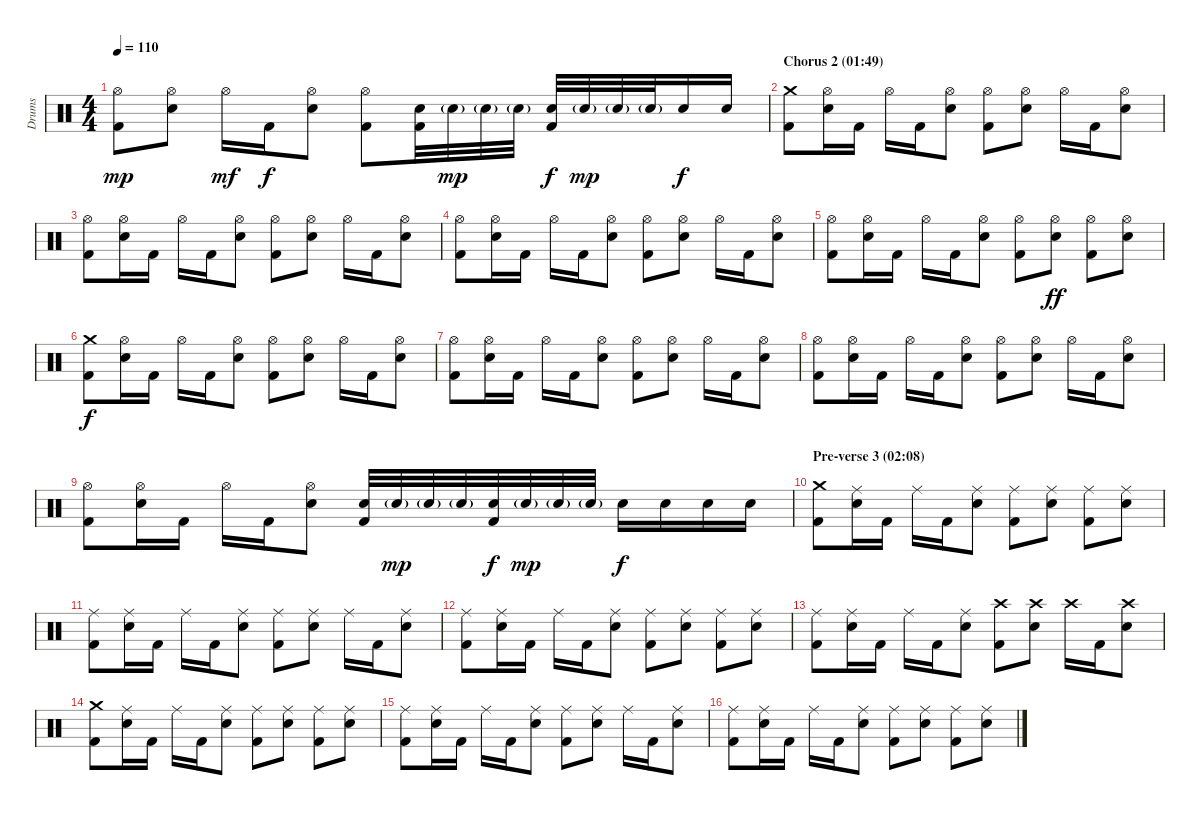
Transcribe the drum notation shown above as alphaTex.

\track ("Drums" "Drums") {instrument percussion}
\staff {score}
\articulation defaults
\ts (4 4)
\tempo 110
\clef neutral
\ks c
("Hi-Hat (open)" "Kick (hit) 2").8{dy mp} ("Hi-Hat (open)" "Electric Snare (hit)").8 "Hi-Hat (open)".16{dy mf} "Kick (hit) 2".16{dy f} ("Hi-Hat (open)" "Electric Snare (hit)").8 ("Hi-Hat (open)" "Kick (hit) 2").8 ("Electric Snare (hit)" "Kick (hit) 2").32 "Electric Snare (hit)"{g}.32{dy mp} "Electric Snare (hit)"{g}.32 "Electric Snare (hit)"{g}.32 ("Electric Snare (hit)" "Kick (hit) 2").32{dy f} "Electric Snare (hit)"{g}.32{dy mp} "Electric Snare (hit)"{g}.32 "Electric Snare (hit)"{g}.32 "Electric Snare (hit)".16{dy f} "Electric Snare (hit)".16 |
\section ("" "Chorus 2 (01:49)")
("Crash medium (hit)" "Kick (hit) 2").8 ("Hi-Hat (open)" "Electric Snare (hit)").16 "Kick (hit) 2".16 "Hi-Hat (open)".16 "Kick (hit) 2".16 ("Hi-Hat (open)" "Electric Snare (hit)").8 ("Hi-Hat (open)" "Kick (hit) 2").8 ("Hi-Hat (open)" "Electric Snare (hit)").8 "Hi-Hat (open)".16 "Kick (hit) 2".16 ("Hi-Hat (open)" "Electric Snare (hit)").8 |
("Hi-Hat (open)" "Kick (hit) 2").8 ("Hi-Hat (open)" "Electric Snare (hit)").16 "Kick (hit) 2".16 "Hi-Hat (open)".16 "Kick (hit) 2".16 ("Hi-Hat (open)" "Electric Snare (hit)").8 ("Hi-Hat (open)" "Kick (hit) 2").8 ("Hi-Hat (open)" "Electric Snare (hit)").8 "Hi-Hat (open)".16 "Kick (hit) 2".16 ("Hi-Hat (open)" "Electric Snare (hit)").8 |
("Hi-Hat (open)" "Kick (hit) 2").8 ("Hi-Hat (open)" "Electric Snare (hit)").16 "Kick (hit) 2".16 "Hi-Hat (open)".16 "Kick (hit) 2".16 ("Hi-Hat (open)" "Electric Snare (hit)").8 ("Hi-Hat (open)" "Kick (hit) 2").8 ("Hi-Hat (open)" "Electric Snare (hit)").8 "Hi-Hat (open)".16 "Kick (hit) 2".16 ("Hi-Hat (open)" "Electric Snare (hit)").8 |
("Hi-Hat (open)" "Kick (hit) 2").8 ("Hi-Hat (open)" "Electric Snare (hit)").16 "Kick (hit) 2".16 "Hi-Hat (open)".16 "Kick (hit) 2".16 ("Hi-Hat (open)" "Electric Snare (hit)").8 ("Hi-Hat (open)" "Kick (hit) 2").8 ("Hi-Hat (open)" "Electric Snare (hit)").8{dy ff} ("Hi-Hat (open)" "Kick (hit) 2").8 ("Hi-Hat (open)" "Electric Snare (hit)").8 |
("Crash medium (hit)" "Kick (hit) 2").8{dy f} ("Hi-Hat (open)" "Electric Snare (hit)").16 "Kick (hit) 2".16 "Hi-Hat (open)".16 "Kick (hit) 2".16 ("Hi-Hat (open)" "Electric Snare (hit)").8 ("Hi-Hat (open)" "Kick (hit) 2").8 ("Hi-Hat (open)" "Electric Snare (hit)").8 "Hi-Hat (open)".16 "Kick (hit) 2".16 ("Hi-Hat (open)" "Electric Snare (hit)").8 |
("Hi-Hat (open)" "Kick (hit) 2").8 ("Hi-Hat (open)" "Electric Snare (hit)").16 "Kick (hit) 2".16 "Hi-Hat (open)".16 "Kick (hit) 2".16 ("Hi-Hat (open)" "Electric Snare (hit)").8 ("Hi-Hat (open)" "Kick (hit) 2").8 ("Hi-Hat (open)" "Electric Snare (hit)").8 "Hi-Hat (open)".16 "Kick (hit) 2".16 ("Hi-Hat (open)" "Electric Snare (hit)").8 |
("Hi-Hat (open)" "Kick (hit) 2").8 ("Hi-Hat (open)" "Electric Snare (hit)").16 "Kick (hit) 2".16 "Hi-Hat (open)".16 "Kick (hit) 2".16 ("Hi-Hat (open)" "Electric Snare (hit)").8 ("Hi-Hat (open)" "Kick (hit) 2").8 ("Hi-Hat (open)" "Electric Snare (hit)").8 "Hi-Hat (open)".16 "Kick (hit) 2".16 ("Hi-Hat (open)" "Electric Snare (hit)").8 |
("Hi-Hat (open)" "Kick (hit) 2").8 ("Hi-Hat (open)" "Electric Snare (hit)").16 "Kick (hit) 2".16 "Hi-Hat (open)".16 "Kick (hit) 2".16 ("Hi-Hat (open)" "Electric Snare (hit)").8 ("Electric Snare (hit)" "Kick (hit) 2").32 "Electric Snare (hit)"{g}.32{dy mp} "Electric Snare (hit)"{g}.32 "Electric Snare (hit)"{g}.32 ("Electric Snare (hit)" "Kick (hit) 2").32{dy f} "Electric Snare (hit)"{g}.32{dy mp} "Electric Snare (hit)"{g}.32 "Electric Snare (hit)"{g}.32 "Electric Snare (hit)".16{dy f} "Electric Snare (hit)".16 "Electric Snare (hit)".16 "Electric Snare (hit)".16 |
\section ("" "Pre-verse 3 (02:08)")
("Crash medium (hit)" "Kick (hit) 2").8 ("Ride (middle)" "Electric Snare (hit)").16 "Kick (hit) 2".16 "Ride (middle)".16 "Kick (hit) 2".16 ("Ride (middle)" "Electric Snare (hit)").8 ("Ride (middle)" "Kick (hit) 2").8 ("Ride (middle)" "Electric Snare (hit)").8 ("Ride (middle)" "Kick (hit) 2").8 ("Ride (middle)" "Electric Snare (hit)").8 |
("Ride (middle)" "Kick (hit) 2").8 ("Ride (middle)" "Electric Snare (hit)").16 "Kick (hit) 2".16 "Ride (middle)".16 "Kick (hit) 2".16 ("Ride (middle)" "Electric Snare (hit)").8 ("Ride (middle)" "Kick (hit) 2").8 ("Ride (middle)" "Electric Snare (hit)").8 "Ride (middle)".16 "Kick (hit) 2".16 ("Ride (middle)" "Electric Snare (hit)").8 |
("Ride (middle)" "Kick (hit) 2").8 ("Ride (middle)" "Electric Snare (hit)").16 "Kick (hit) 2".16 "Ride (middle)".16 "Kick (hit) 2".16 ("Ride (middle)" "Electric Snare (hit)").8 ("Ride (middle)" "Kick (hit) 2").8 ("Ride (middle)" "Electric Snare (hit)").8 ("Ride (middle)" "Kick (hit) 2").8 ("Ride (middle)" "Electric Snare (hit)").8 |
("Ride (middle)" "Kick (hit) 2").8 ("Ride (middle)" "Electric Snare (hit)").16 "Kick (hit) 2".16 "Ride (middle)".16 "Kick (hit) 2".16 ("Ride (middle)" "Electric Snare (hit)").8 ("Crash high (hit)" "Kick (hit) 2").8 ("Crash high (hit)" "Electric Snare (hit)").8 "Crash high (hit)".16 "Kick (hit) 2".16 ("Crash high (hit)" "Electric Snare (hit)").8 |
("Crash medium (hit)" "Kick (hit) 2").8 ("Ride (middle)" "Electric Snare (hit)").16 "Kick (hit) 2".16 "Ride (middle)".16 "Kick (hit) 2".16 ("Ride (middle)" "Electric Snare (hit)").8 ("Ride (middle)" "Kick (hit) 2").8 ("Ride (middle)" "Electric Snare (hit)").8 ("Ride (middle)" "Kick (hit) 2").8 ("Ride (middle)" "Electric Snare (hit)").8 |
("Ride (middle)" "Kick (hit) 2").8 ("Ride (middle)" "Electric Snare (hit)").16 "Kick (hit) 2".16 "Ride (middle)".16 "Kick (hit) 2".16 ("Ride (middle)" "Electric Snare (hit)").8 ("Ride (middle)" "Kick (hit) 2").8 ("Ride (middle)" "Electric Snare (hit)").8 "Ride (middle)".16 "Kick (hit) 2".16 ("Ride (middle)" "Electric Snare (hit)").8 |
("Ride (middle)" "Kick (hit) 2").8 ("Ride (middle)" "Electric Snare (hit)").16 "Kick (hit) 2".16 "Ride (middle)".16 "Kick (hit) 2".16 ("Ride (middle)" "Electric Snare (hit)").8 ("Ride (middle)" "Kick (hit) 2").8 ("Ride (middle)" "Electric Snare (hit)").8 ("Ride (middle)" "Kick (hit) 2").8 ("Ride (middle)" "Electric Snare (hit)").8
